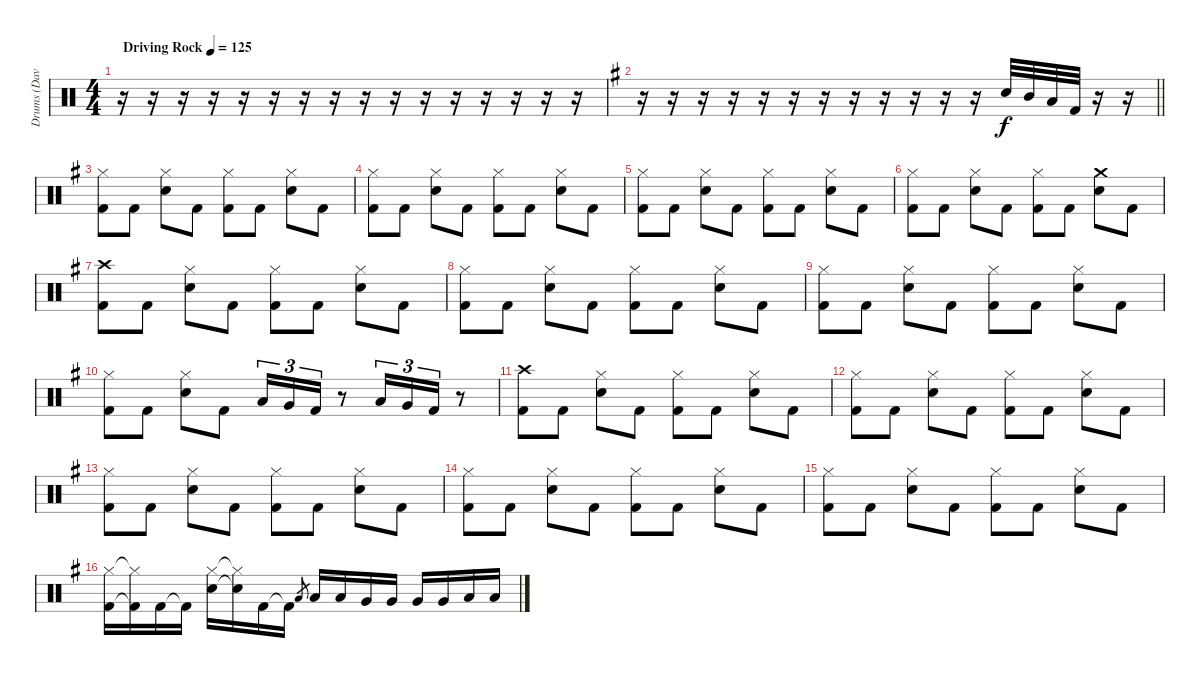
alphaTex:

\track ("Drums (Dave Holland)" "Drums (Dav") {instrument percussion}
\staff {score}
\articulation defaults
\ts (4 4)
\tempo (125 "Driving Rock")
\clef neutral
\ks c
r.16{dy f} r.16 r.16 r.16 r.16 r.16 r.16 r.16 r.16 r.16 r.16 r.16 r.16 r.16 r.16 r.16 |
\barLineRight lightlight
\ks g
r.16 r.16 r.16 r.16 r.16 r.16 r.16 r.16 r.16 r.16 r.16 r.16 "Snare (hit) 2".32 "Mid Tom (hit)".32 "Low Tom (hit)".32 "Kick (hit) 2".32 r.16 r.16 |
("Hi-Hat (closed)" "Kick (hit) 2").8 "Kick (hit) 2".8 ("Hi-Hat (closed)" "Snare (hit) 2").8 "Kick (hit) 2".8 ("Hi-Hat (closed)" "Kick (hit) 2").8 "Kick (hit) 2".8 ("Hi-Hat (closed)" "Snare (hit) 2").8 "Kick (hit) 2".8 |
("Hi-Hat (closed)" "Kick (hit) 2").8 "Kick (hit) 2".8 ("Hi-Hat (closed)" "Snare (hit) 2").8 "Kick (hit) 2".8 ("Hi-Hat (closed)" "Kick (hit) 2").8 "Kick (hit) 2".8 ("Hi-Hat (closed)" "Snare (hit) 2").8 "Kick (hit) 2".8 |
("Hi-Hat (closed)" "Kick (hit) 2").8 "Kick (hit) 2".8 ("Hi-Hat (closed)" "Snare (hit) 2").8 "Kick (hit) 2".8 ("Hi-Hat (closed)" "Kick (hit) 2").8 "Kick (hit) 2".8 ("Hi-Hat (closed)" "Snare (hit) 2").8 "Kick (hit) 2".8 |
("Hi-Hat (closed)" "Kick (hit) 2").8 "Kick (hit) 2".8 ("Hi-Hat (closed)" "Snare (hit) 2").8 "Kick (hit) 2".8 ("Hi-Hat (closed)" "Kick (hit) 2").8 "Kick (hit) 2".8 ("Crash medium (hit)" "Snare (hit) 2").8 "Kick (hit) 2".8 |
("Crash high (hit)" "Kick (hit) 2").8 "Kick (hit) 2".8 ("Hi-Hat (closed)" "Snare (hit) 2").8 "Kick (hit) 2".8 ("Hi-Hat (closed)" "Kick (hit) 2").8 "Kick (hit) 2".8 ("Hi-Hat (closed)" "Snare (hit) 2").8 "Kick (hit) 2".8 |
("Hi-Hat (closed)" "Kick (hit) 2").8 "Kick (hit) 2".8 ("Hi-Hat (closed)" "Snare (hit) 2").8 "Kick (hit) 2".8 ("Hi-Hat (closed)" "Kick (hit) 2").8 "Kick (hit) 2".8 ("Hi-Hat (closed)" "Snare (hit) 2").8 "Kick (hit) 2".8 |
("Hi-Hat (closed)" "Kick (hit) 2").8 "Kick (hit) 2".8 ("Hi-Hat (closed)" "Snare (hit) 2").8 "Kick (hit) 2".8 ("Hi-Hat (closed)" "Kick (hit) 2").8 "Kick (hit) 2".8 ("Hi-Hat (closed)" "Snare (hit) 2").8 "Kick (hit) 2".8 |
("Hi-Hat (closed)" "Kick (hit) 2").8 "Kick (hit) 2".8 ("Hi-Hat (closed)" "Snare (hit) 2").8 "Kick (hit) 2".8 "Low Tom (hit)".16{tu (3 2)} "Very Low Tom (hit)".16{tu (3 2)} "Kick (hit) 2".16{tu (3 2)} r.8 "Low Tom (hit)".16{tu (3 2)} "Very Low Tom (hit)".16{tu (3 2)} "Kick (hit) 2".16{tu (3 2)} r.8 |
("Crash high (hit)" "Kick (hit) 2").8 "Kick (hit) 2".8 ("Hi-Hat (closed)" "Snare (hit) 2").8 "Kick (hit) 2".8 ("Hi-Hat (closed)" "Kick (hit) 2").8 "Kick (hit) 2".8 ("Hi-Hat (closed)" "Snare (hit) 2").8 "Kick (hit) 2".8 |
("Hi-Hat (closed)" "Kick (hit) 2").8 "Kick (hit) 2".8 ("Hi-Hat (closed)" "Snare (hit) 2").8 "Kick (hit) 2".8 ("Hi-Hat (closed)" "Kick (hit) 2").8 "Kick (hit) 2".8 ("Hi-Hat (closed)" "Snare (hit) 2").8 "Kick (hit) 2".8 |
("Hi-Hat (closed)" "Kick (hit) 2").8 "Kick (hit) 2".8 ("Hi-Hat (closed)" "Snare (hit) 2").8 "Kick (hit) 2".8 ("Hi-Hat (closed)" "Kick (hit) 2").8 "Kick (hit) 2".8 ("Hi-Hat (closed)" "Snare (hit) 2").8 "Kick (hit) 2".8 |
("Hi-Hat (closed)" "Kick (hit) 2").8 "Kick (hit) 2".8 ("Hi-Hat (closed)" "Snare (hit) 2").8 "Kick (hit) 2".8 ("Hi-Hat (closed)" "Kick (hit) 2").8 "Kick (hit) 2".8 ("Hi-Hat (closed)" "Snare (hit) 2").8 "Kick (hit) 2".8 |
("Hi-Hat (closed)" "Kick (hit) 2").8 "Kick (hit) 2".8 ("Hi-Hat (closed)" "Snare (hit) 2").8 "Kick (hit) 2".8 ("Hi-Hat (closed)" "Kick (hit) 2").8 "Kick (hit) 2".8 ("Hi-Hat (closed)" "Snare (hit) 2").8 "Kick (hit) 2".8 |
("Hi-Hat (closed)" "Kick (hit) 2").16 ("Hi-Hat (closed)"{t} "Kick (hit) 2"{t}).16 "Kick (hit) 2".16 "Kick (hit) 2"{t}.16 ("Hi-Hat (closed)" "Snare (hit) 2").16 ("Hi-Hat (closed)"{t} "Snare (hit) 2"{t}).16 "Kick (hit) 2".16 "Kick (hit) 2"{t}.16 "Low Tom (hit)".8{gr} "Low Tom (hit)".16 "Low Tom (hit)".16 "Very Low Tom (hit)".16 "Very Low Tom (hit)".16 "Very Low Tom (hit)".16 "Very Low Tom (hit)".16 "Low Floor Tom (hit)".16 "Low Floor Tom (hit)".16
